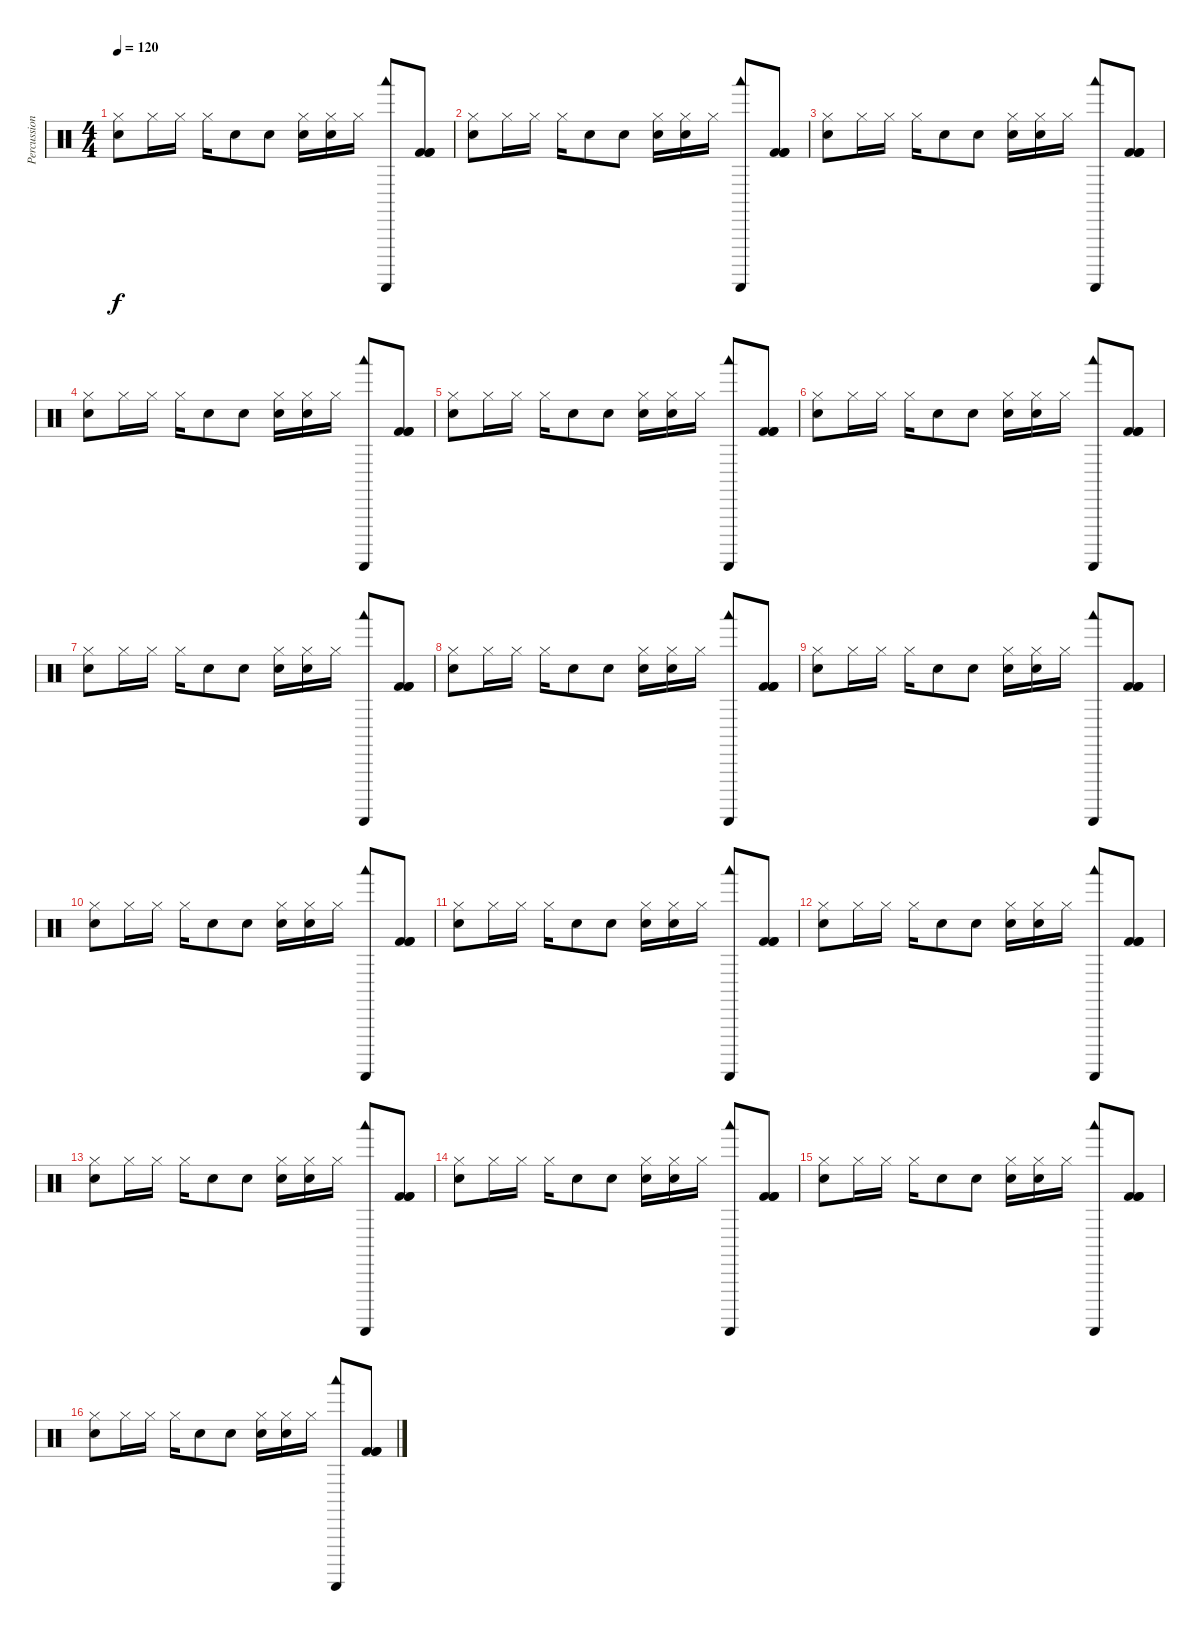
\track ("Percussions" "Percussion") {instrument percussion}
\staff {score}
\articulation defaults
\ts (4 4)
\tempo 120
\clef neutral
\ks c
("Electric Snare (hit)" "Hi-Hat (closed)").8{dy f} "Hi-Hat (closed)".16 "Hi-Hat (closed)".16 "Hi-Hat (closed)".16 "Snare (hit)"{x}.8 "Snare (hit)"{x}.8 ("Snare (hit)"{x} "Hi-Hat (closed)").16 ("Snare (hit)"{x} "Hi-Hat (closed)").16 "Hi-Hat (closed)".16 ("Woodblock low (hit)" "Guiro (scrap-return)").8 ("Kick (hit) 2" "Kick (hit) 2" "Kick (hit) 2").8 |
("Electric Snare (hit)" "Hi-Hat (closed)").8 "Hi-Hat (closed)".16 "Hi-Hat (closed)".16 "Hi-Hat (closed)".16 "Snare (hit)"{x}.8 "Snare (hit)"{x}.8 ("Snare (hit)"{x} "Hi-Hat (closed)").16 ("Snare (hit)"{x} "Hi-Hat (closed)").16 "Hi-Hat (closed)".16 ("Woodblock low (hit)" "Guiro (scrap-return)").8 ("Kick (hit) 2" "Kick (hit) 2" "Kick (hit) 2").8 |
("Electric Snare (hit)" "Hi-Hat (closed)").8 "Hi-Hat (closed)".16 "Hi-Hat (closed)".16 "Hi-Hat (closed)".16 "Snare (hit)"{x}.8 "Snare (hit)"{x}.8 ("Snare (hit)"{x} "Hi-Hat (closed)").16 ("Snare (hit)"{x} "Hi-Hat (closed)").16 "Hi-Hat (closed)".16 ("Woodblock low (hit)" "Guiro (scrap-return)").8 ("Kick (hit) 2" "Kick (hit) 2" "Kick (hit) 2").8 |
("Electric Snare (hit)" "Hi-Hat (closed)").8 "Hi-Hat (closed)".16 "Hi-Hat (closed)".16 "Hi-Hat (closed)".16 "Snare (hit)"{x}.8 "Snare (hit)"{x}.8 ("Snare (hit)"{x} "Hi-Hat (closed)").16 ("Snare (hit)"{x} "Hi-Hat (closed)").16 "Hi-Hat (closed)".16 ("Woodblock low (hit)" "Guiro (scrap-return)").8 ("Kick (hit) 2" "Kick (hit) 2" "Kick (hit) 2").8 |
("Electric Snare (hit)" "Hi-Hat (closed)").8 "Hi-Hat (closed)".16 "Hi-Hat (closed)".16 "Hi-Hat (closed)".16 "Snare (hit)"{x}.8 "Snare (hit)"{x}.8 ("Snare (hit)"{x} "Hi-Hat (closed)").16 ("Snare (hit)"{x} "Hi-Hat (closed)").16 "Hi-Hat (closed)".16 ("Woodblock low (hit)" "Guiro (scrap-return)").8 ("Kick (hit) 2" "Kick (hit) 2" "Kick (hit) 2").8 |
("Electric Snare (hit)" "Hi-Hat (closed)").8 "Hi-Hat (closed)".16 "Hi-Hat (closed)".16 "Hi-Hat (closed)".16 "Snare (hit)"{x}.8 "Snare (hit)"{x}.8 ("Snare (hit)"{x} "Hi-Hat (closed)").16 ("Snare (hit)"{x} "Hi-Hat (closed)").16 "Hi-Hat (closed)".16 ("Woodblock low (hit)" "Guiro (scrap-return)").8 ("Kick (hit) 2" "Kick (hit) 2" "Kick (hit) 2").8 |
("Electric Snare (hit)" "Hi-Hat (closed)").8 "Hi-Hat (closed)".16 "Hi-Hat (closed)".16 "Hi-Hat (closed)".16 "Snare (hit)"{x}.8 "Snare (hit)"{x}.8 ("Snare (hit)"{x} "Hi-Hat (closed)").16 ("Snare (hit)"{x} "Hi-Hat (closed)").16 "Hi-Hat (closed)".16 ("Woodblock low (hit)" "Guiro (scrap-return)").8 ("Kick (hit) 2" "Kick (hit) 2" "Kick (hit) 2").8 |
("Electric Snare (hit)" "Hi-Hat (closed)").8 "Hi-Hat (closed)".16 "Hi-Hat (closed)".16 "Hi-Hat (closed)".16 "Snare (hit)"{x}.8 "Snare (hit)"{x}.8 ("Snare (hit)"{x} "Hi-Hat (closed)").16 ("Snare (hit)"{x} "Hi-Hat (closed)").16 "Hi-Hat (closed)".16 ("Woodblock low (hit)" "Guiro (scrap-return)").8 ("Kick (hit) 2" "Kick (hit) 2" "Kick (hit) 2").8 |
("Electric Snare (hit)" "Hi-Hat (closed)").8 "Hi-Hat (closed)".16 "Hi-Hat (closed)".16 "Hi-Hat (closed)".16 "Snare (hit)"{x}.8 "Snare (hit)"{x}.8 ("Snare (hit)"{x} "Hi-Hat (closed)").16 ("Snare (hit)"{x} "Hi-Hat (closed)").16 "Hi-Hat (closed)".16 ("Woodblock low (hit)" "Guiro (scrap-return)").8 ("Kick (hit) 2" "Kick (hit) 2" "Kick (hit) 2").8 |
("Electric Snare (hit)" "Hi-Hat (closed)").8 "Hi-Hat (closed)".16 "Hi-Hat (closed)".16 "Hi-Hat (closed)".16 "Snare (hit)"{x}.8 "Snare (hit)"{x}.8 ("Snare (hit)"{x} "Hi-Hat (closed)").16 ("Snare (hit)"{x} "Hi-Hat (closed)").16 "Hi-Hat (closed)".16 ("Woodblock low (hit)" "Guiro (scrap-return)").8 ("Kick (hit) 2" "Kick (hit) 2" "Kick (hit) 2").8 |
("Electric Snare (hit)" "Hi-Hat (closed)").8 "Hi-Hat (closed)".16 "Hi-Hat (closed)".16 "Hi-Hat (closed)".16 "Snare (hit)"{x}.8 "Snare (hit)"{x}.8 ("Snare (hit)"{x} "Hi-Hat (closed)").16 ("Snare (hit)"{x} "Hi-Hat (closed)").16 "Hi-Hat (closed)".16 ("Woodblock low (hit)" "Guiro (scrap-return)").8 ("Kick (hit) 2" "Kick (hit) 2" "Kick (hit) 2").8 |
("Electric Snare (hit)" "Hi-Hat (closed)").8 "Hi-Hat (closed)".16 "Hi-Hat (closed)".16 "Hi-Hat (closed)".16 "Snare (hit)"{x}.8 "Snare (hit)"{x}.8 ("Snare (hit)"{x} "Hi-Hat (closed)").16 ("Snare (hit)"{x} "Hi-Hat (closed)").16 "Hi-Hat (closed)".16 ("Woodblock low (hit)" "Guiro (scrap-return)").8 ("Kick (hit) 2" "Kick (hit) 2" "Kick (hit) 2").8 |
("Electric Snare (hit)" "Hi-Hat (closed)").8 "Hi-Hat (closed)".16 "Hi-Hat (closed)".16 "Hi-Hat (closed)".16 "Snare (hit)"{x}.8 "Snare (hit)"{x}.8 ("Snare (hit)"{x} "Hi-Hat (closed)").16 ("Snare (hit)"{x} "Hi-Hat (closed)").16 "Hi-Hat (closed)".16 ("Woodblock low (hit)" "Guiro (scrap-return)").8 ("Kick (hit) 2" "Kick (hit) 2" "Kick (hit) 2").8 |
("Electric Snare (hit)" "Hi-Hat (closed)").8 "Hi-Hat (closed)".16 "Hi-Hat (closed)".16 "Hi-Hat (closed)".16 "Snare (hit)"{x}.8 "Snare (hit)"{x}.8 ("Snare (hit)"{x} "Hi-Hat (closed)").16 ("Snare (hit)"{x} "Hi-Hat (closed)").16 "Hi-Hat (closed)".16 ("Woodblock low (hit)" "Guiro (scrap-return)").8 ("Kick (hit) 2" "Kick (hit) 2" "Kick (hit) 2").8 |
("Electric Snare (hit)" "Hi-Hat (closed)").8 "Hi-Hat (closed)".16 "Hi-Hat (closed)".16 "Hi-Hat (closed)".16 "Snare (hit)"{x}.8 "Snare (hit)"{x}.8 ("Snare (hit)"{x} "Hi-Hat (closed)").16 ("Snare (hit)"{x} "Hi-Hat (closed)").16 "Hi-Hat (closed)".16 ("Woodblock low (hit)" "Guiro (scrap-return)").8 ("Kick (hit) 2" "Kick (hit) 2" "Kick (hit) 2").8 |
("Electric Snare (hit)" "Hi-Hat (closed)").8 "Hi-Hat (closed)".16 "Hi-Hat (closed)".16 "Hi-Hat (closed)".16 "Snare (hit)"{x}.8 "Snare (hit)"{x}.8 ("Snare (hit)"{x} "Hi-Hat (closed)").16 ("Snare (hit)"{x} "Hi-Hat (closed)").16 "Hi-Hat (closed)".16 ("Woodblock low (hit)" "Guiro (scrap-return)").8 ("Kick (hit) 2" "Kick (hit) 2" "Kick (hit) 2").8
